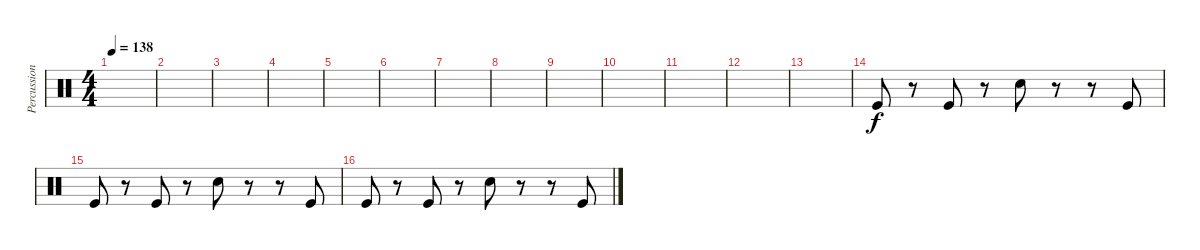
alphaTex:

\track ("Percussions" "Percussion") {instrument percussion}
\staff {score}
\articulation defaults
\ts (4 4)
\tempo 138
\clef neutral
\ks c
|
|
|
|
|
|
|
|
|
|
|
|
|
"Kick (hit)".8 r.8 "Kick (hit)".8 r.8 "Electric Snare (hit)".8 r.8 r.8 "Kick (hit)".8 |
"Kick (hit)".8 r.8 "Kick (hit)".8 r.8 "Electric Snare (hit)".8 r.8 r.8 "Kick (hit)".8 |
"Kick (hit)".8 r.8 "Kick (hit)".8 r.8 "Electric Snare (hit)".8 r.8 r.8 "Kick (hit)".8
